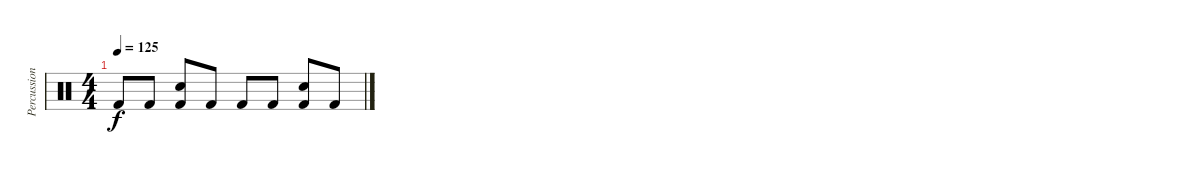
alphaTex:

\track ("Percussion" "Percussion") {instrument percussion}
\staff {score}
\articulation defaults
\ts (4 4)
\tempo 125
\clef neutral
\ks c "Kick (hit) 2".8{dy f} "Kick (hit) 2".8
("Kick (hit) 2" "Electric Snare (hit)").8 "Kick (hit) 2".8 "Kick (hit) 2".8 "Kick (hit) 2".8 ("Kick (hit) 2" "Electric Snare (hit)").8 "Kick (hit) 2".8
